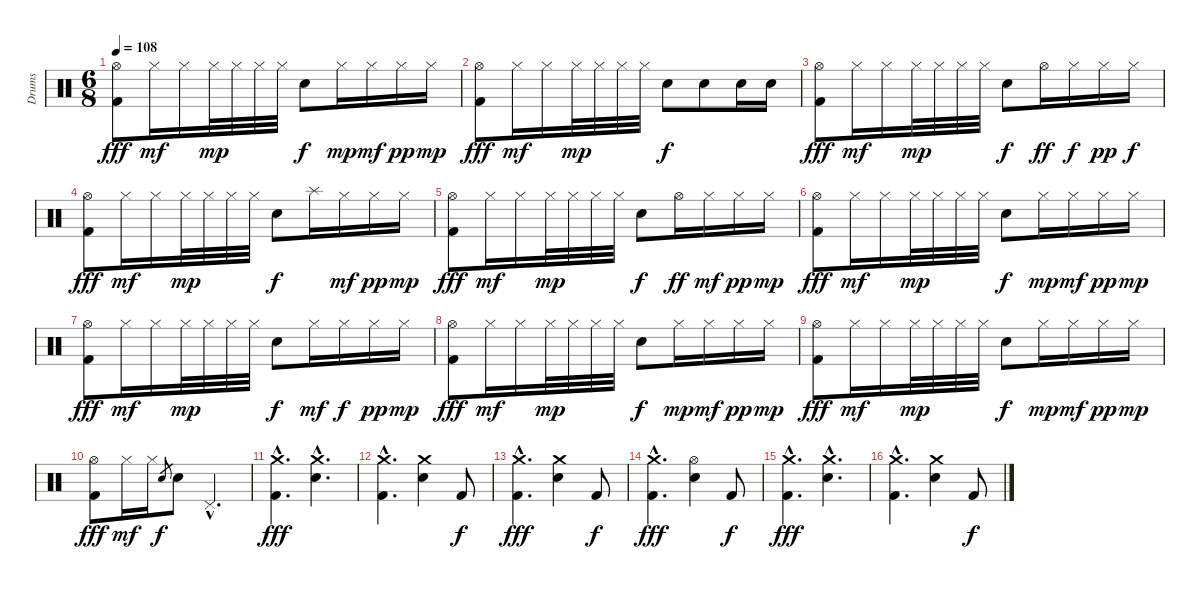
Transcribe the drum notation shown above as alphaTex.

\track ("Drums" "Drums") {instrument percussion}
\staff {score}
\articulation defaults
\ts (6 8)
\tempo 108
\clef neutral
\ks c
("Hi-Hat (open)" "Kick (hit) 2").8{dy fff} "Hi-Hat (closed)".16{dy mf} "Hi-Hat (closed)".16 "Hi-Hat (closed)".32{dy mp} "Hi-Hat (closed)".32 "Hi-Hat (closed)".32 "Hi-Hat (closed)".32 "Snare (hit) 2".8{dy f} "Hi-Hat (closed)".16{dy mp} "Hi-Hat (closed)".16{dy mf} "Hi-Hat (closed)".16{dy pp} "Hi-Hat (closed)".16{dy mp} |
("Hi-Hat (open)" "Kick (hit) 2").8{dy fff} "Hi-Hat (closed)".16{dy mf} "Hi-Hat (closed)".16 "Hi-Hat (closed)".32{dy mp} "Hi-Hat (closed)".32 "Hi-Hat (closed)".32 "Hi-Hat (closed)".32 "Snare (hit) 2".8{dy f} "Snare (hit) 2".8 "Snare (hit) 2".16 "Snare (hit) 2".16 |
("Hi-Hat (open)" "Kick (hit) 2").8{dy fff} "Hi-Hat (closed)".16{dy mf} "Hi-Hat (closed)".16 "Hi-Hat (closed)".32{dy mp} "Hi-Hat (closed)".32 "Hi-Hat (closed)".32 "Hi-Hat (closed)".32 "Snare (hit) 2".8{dy f} "Hi-Hat (open)".16{dy ff} "Hi-Hat (closed)".16{dy f} "Hi-Hat (closed)".16{dy pp} "Hi-Hat (closed)".16{dy f} |
("Hi-Hat (open)" "Kick (hit) 2").8{dy fff} "Hi-Hat (closed)".16{dy mf} "Hi-Hat (closed)".16 "Hi-Hat (closed)".32{dy mp} "Hi-Hat (closed)".32 "Hi-Hat (closed)".32 "Hi-Hat (closed)".32 "Snare (hit) 2".8{dy f} "Splash (hit)".16 "Hi-Hat (closed)".16{dy mf} "Hi-Hat (closed)".16{dy pp} "Hi-Hat (closed)".16{dy mp} |
("Hi-Hat (open)" "Kick (hit) 2").8{dy fff} "Hi-Hat (closed)".16{dy mf} "Hi-Hat (closed)".16 "Hi-Hat (closed)".32{dy mp} "Hi-Hat (closed)".32 "Hi-Hat (closed)".32 "Hi-Hat (closed)".32 "Snare (hit) 2".8{dy f} "Hi-Hat (open)".16{dy ff} "Hi-Hat (closed)".16{dy mf} "Hi-Hat (closed)".16{dy pp} "Hi-Hat (closed)".16{dy mp} |
("Hi-Hat (open)" "Kick (hit) 2").8{dy fff} "Hi-Hat (closed)".16{dy mf} "Hi-Hat (closed)".16 "Hi-Hat (closed)".32{dy mp} "Hi-Hat (closed)".32 "Hi-Hat (closed)".32 "Hi-Hat (closed)".32 "Snare (hit) 2".8{dy f} "Hi-Hat (closed)".16{dy mp} "Hi-Hat (closed)".16{dy mf} "Hi-Hat (closed)".16{dy pp} "Hi-Hat (closed)".16{dy mp} |
("Hi-Hat (open)" "Kick (hit) 2").8{dy fff} "Hi-Hat (closed)".16{dy mf} "Hi-Hat (closed)".16 "Hi-Hat (closed)".32{dy mp} "Hi-Hat (closed)".32 "Hi-Hat (closed)".32 "Hi-Hat (closed)".32 "Snare (hit) 2".8{dy f} "Hi-Hat (closed)".16{dy mf} "Hi-Hat (closed)".16{dy f} "Hi-Hat (closed)".16{dy pp} "Hi-Hat (closed)".16{dy mp} |
("Hi-Hat (open)" "Kick (hit) 2").8{dy fff} "Hi-Hat (closed)".16{dy mf} "Hi-Hat (closed)".16 "Hi-Hat (closed)".32{dy mp} "Hi-Hat (closed)".32 "Hi-Hat (closed)".32 "Hi-Hat (closed)".32 "Snare (hit) 2".8{dy f} "Hi-Hat (closed)".16{dy mp} "Hi-Hat (closed)".16{dy mf} "Hi-Hat (closed)".16{dy pp} "Hi-Hat (closed)".16{dy mp} |
("Hi-Hat (open)" "Kick (hit) 2").8{dy fff} "Hi-Hat (closed)".16{dy mf} "Hi-Hat (closed)".16 "Hi-Hat (closed)".32{dy mp} "Hi-Hat (closed)".32 "Hi-Hat (closed)".32 "Hi-Hat (closed)".32 "Snare (hit) 2".8{dy f} "Hi-Hat (closed)".16{dy mp} "Hi-Hat (closed)".16{dy mf} "Hi-Hat (closed)".16{dy pp} "Hi-Hat (closed)".16{dy mp} |
("Hi-Hat (open)" "Kick (hit) 2").8{dy fff} "Hi-Hat (closed)".16{dy mf} "Hi-Hat (closed)".16 "Snare (hit) 2".8{gr dy f} "Snare (hit) 2".8 "Pedal Hi-Hat (hit)"{hac}.4{d} |
("Crash medium (hit)"{hac} "Kick (hit) 2"{hac}).4{d dy fff} ("Crash medium (hit)"{hac} "Snare (hit) 2"{hac}).4{d} |
("Crash medium (hit)"{hac} "Kick (hit) 2"{hac}).4{d} ("Crash medium (hit)" "Snare (hit) 2").4 "Kick (hit) 2".8{dy f} |
("Crash medium (hit)"{hac} "Kick (hit) 2"{hac}).4{d dy fff} ("Crash medium (hit)" "Snare (hit) 2").4 "Kick (hit) 2".8{dy f} |
("Crash medium (hit)"{hac} "Kick (hit) 2"{hac}).4{d dy fff} ("Hi-Hat (open)" "Snare (hit) 2").4 "Kick (hit) 2".8{dy f} |
("Crash medium (hit)"{hac} "Kick (hit) 2"{hac}).4{d dy fff} ("Crash medium (hit)"{hac} "Snare (hit) 2"{hac}).4{d} |
("Crash medium (hit)"{hac} "Kick (hit) 2"{hac}).4{d} ("Crash medium (hit)" "Snare (hit) 2").4 "Kick (hit) 2".8{dy f}
